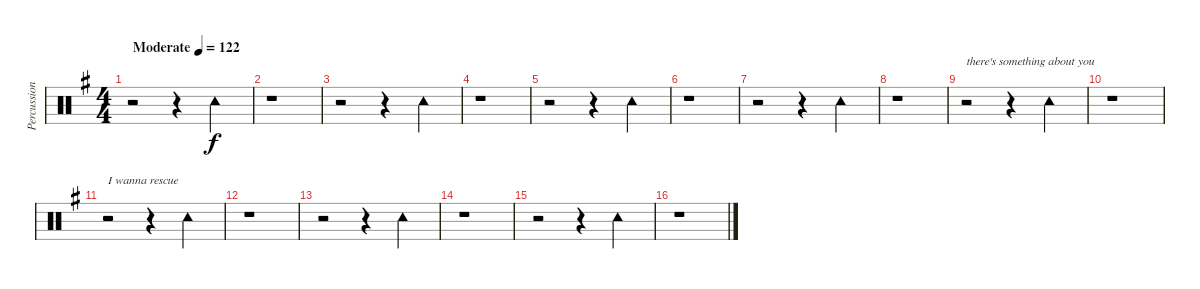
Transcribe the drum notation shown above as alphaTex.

\track ("Percussion" "Percussion") {instrument percussion}
\staff {score}
\articulation defaults
\ts (4 4)
\tempo (122 "Moderate")
\clef neutral
\ks g
r.2{dy f} r.4 "Tambourine (hit)".4 |
r.1 |
r.2 r.4 "Tambourine (hit)".4 |
r.1 |
r.2 r.4 "Tambourine (hit)".4 |
r.1 |
r.2 r.4 "Tambourine (hit)".4 |
r.1 |
r.2{txt "there's something about you"} r.4 "Tambourine (hit)".4 |
r.1 |
r.2{txt "I wanna rescue"} r.4 "Tambourine (hit)".4 |
r.1 |
r.2 r.4 "Tambourine (hit)".4 |
r.1 |
r.2 r.4 "Tambourine (hit)".4 |
r.1
